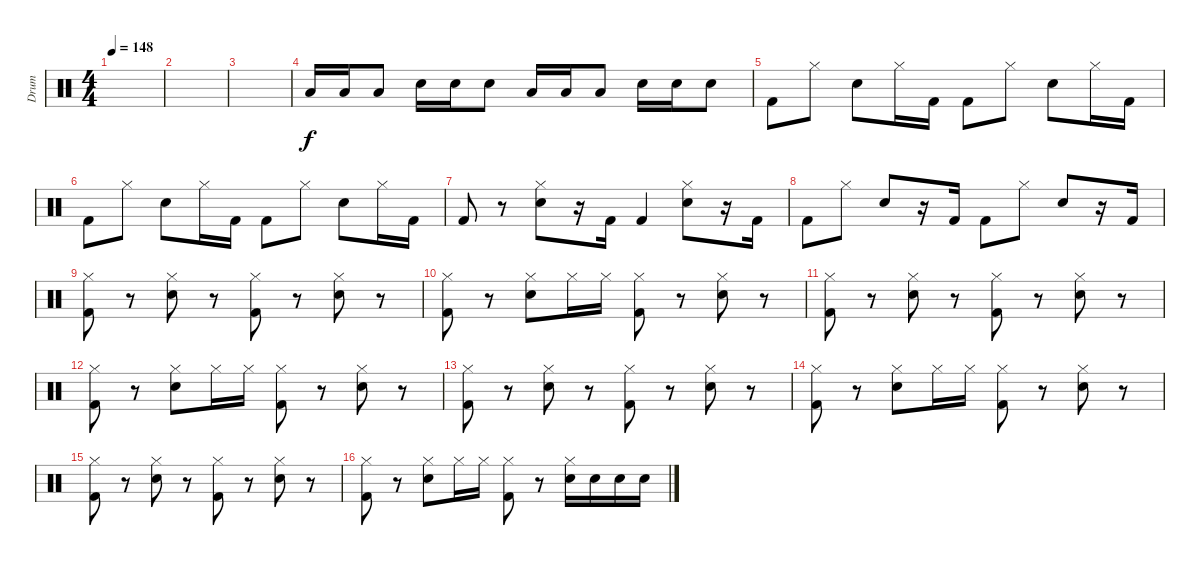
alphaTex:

\track ("Drum" "Drum") {instrument percussion}
\staff {score}
\articulation defaults
\ts (4 4)
\tempo 148
\clef neutral
\ks c
|
|
|
"Low Tom (hit)".16 "Low Tom (hit)".16 "Low Tom (hit)".8 "Electric Snare (hit)".16 "Electric Snare (hit)".16 "Electric Snare (hit)".8 "Low Tom (hit)".16 "Low Tom (hit)".16 "Low Tom (hit)".8 "Electric Snare (hit)".16 "Electric Snare (hit)".16 "Electric Snare (hit)".8 |
"Kick (hit) 2".8 "Hi-Hat (closed)".8 "Electric Snare (hit)".8 "Hi-Hat (closed)".16 "Kick (hit) 2".16 "Kick (hit) 2".8 "Hi-Hat (closed)".8 "Electric Snare (hit)".8 "Hi-Hat (closed)".16 "Kick (hit) 2".16 |
"Kick (hit) 2".8 "Hi-Hat (closed)".8 "Electric Snare (hit)".8 "Hi-Hat (closed)".16 "Kick (hit) 2".16 "Kick (hit) 2".8 "Hi-Hat (closed)".8 "Electric Snare (hit)".8 "Hi-Hat (closed)".16 "Kick (hit) 2".16 |
"Kick (hit) 2".8 r.8 ("Hi-Hat (closed)" "Electric Snare (hit)").8 r.16 "Kick (hit) 2".16 "Kick (hit) 2".4 ("Hi-Hat (closed)" "Electric Snare (hit)").8 r.16 "Kick (hit) 2".16 |
"Kick (hit) 2".8 "Hi-Hat (closed)".8 "Electric Snare (hit)".8 r.16 "Kick (hit) 2".16 "Kick (hit) 2".8 "Hi-Hat (closed)".8 "Electric Snare (hit)".8 r.16 "Kick (hit) 2".16 |
("Hi-Hat (closed)" "Kick (hit) 2").8 r.8 ("Hi-Hat (closed)" "Electric Snare (hit)").8 r.8 ("Hi-Hat (closed)" "Kick (hit) 2").8 r.8 ("Hi-Hat (closed)" "Electric Snare (hit)").8 r.8 |
("Hi-Hat (closed)" "Kick (hit) 2").8 r.8 ("Hi-Hat (closed)" "Electric Snare (hit)").8 "Hi-Hat (closed)".16 "Hi-Hat (closed)".16 ("Hi-Hat (closed)" "Kick (hit) 2").8 r.8 ("Hi-Hat (closed)" "Electric Snare (hit)").8 r.8 |
("Hi-Hat (closed)" "Kick (hit) 2").8 r.8 ("Hi-Hat (closed)" "Electric Snare (hit)").8 r.8 ("Hi-Hat (closed)" "Kick (hit) 2").8 r.8 ("Hi-Hat (closed)" "Electric Snare (hit)").8 r.8 |
("Hi-Hat (closed)" "Kick (hit) 2").8 r.8 ("Hi-Hat (closed)" "Electric Snare (hit)").8 "Hi-Hat (closed)".16 "Hi-Hat (closed)".16 ("Hi-Hat (closed)" "Kick (hit) 2").8 r.8 ("Hi-Hat (closed)" "Electric Snare (hit)").8 r.8 |
("Hi-Hat (closed)" "Kick (hit) 2").8 r.8 ("Hi-Hat (closed)" "Electric Snare (hit)").8 r.8 ("Hi-Hat (closed)" "Kick (hit) 2").8 r.8 ("Hi-Hat (closed)" "Electric Snare (hit)").8 r.8 |
("Hi-Hat (closed)" "Kick (hit) 2").8 r.8 ("Hi-Hat (closed)" "Electric Snare (hit)").8 "Hi-Hat (closed)".16 "Hi-Hat (closed)".16 ("Hi-Hat (closed)" "Kick (hit) 2").8 r.8 ("Hi-Hat (closed)" "Electric Snare (hit)").8 r.8 |
("Hi-Hat (closed)" "Kick (hit) 2").8 r.8 ("Hi-Hat (closed)" "Electric Snare (hit)").8 r.8 ("Hi-Hat (closed)" "Kick (hit) 2").8 r.8 ("Hi-Hat (closed)" "Electric Snare (hit)").8 r.8 |
("Hi-Hat (closed)" "Kick (hit) 2").8 r.8 ("Hi-Hat (closed)" "Electric Snare (hit)").8 "Hi-Hat (closed)".16 "Hi-Hat (closed)".16 ("Hi-Hat (closed)" "Kick (hit) 2").8 r.8 ("Hi-Hat (closed)" "Electric Snare (hit)").16 "Electric Snare (hit)".16 "Electric Snare (hit)".16 "Electric Snare (hit)".16
